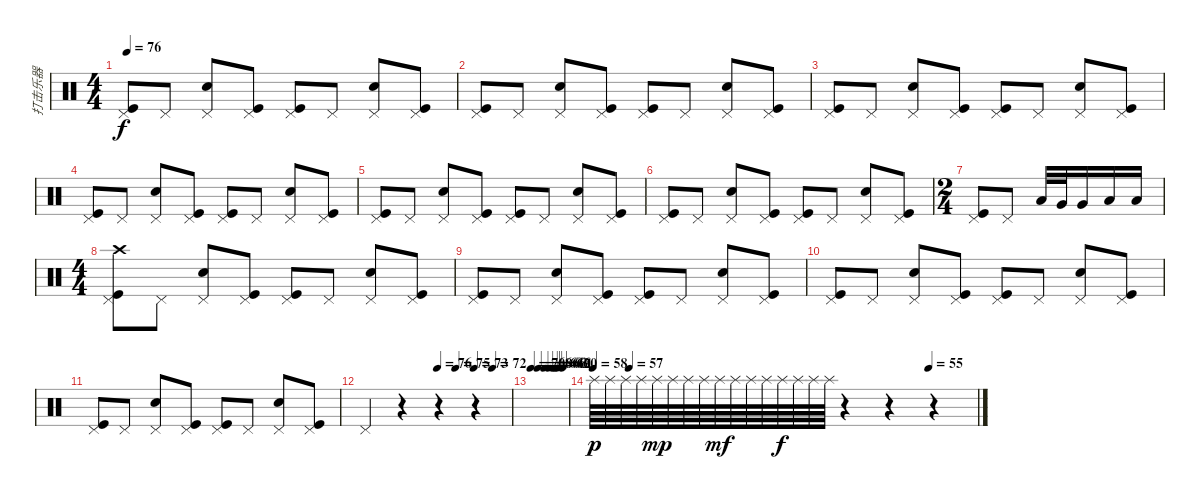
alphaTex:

\track ("打击乐器" "打击乐器") {instrument percussion}
\staff {score}
\articulation defaults
\ts (4 4)
\tempo 76
\clef neutral
\ks c
("Pedal Hi-Hat (hit)" "Kick (hit)").8{dy f} "Pedal Hi-Hat (hit)".8 ("Pedal Hi-Hat (hit)" "Snare (hit) 2").8 ("Pedal Hi-Hat (hit)" "Kick (hit)").8 ("Pedal Hi-Hat (hit)" "Kick (hit)").8 "Pedal Hi-Hat (hit)".8 ("Pedal Hi-Hat (hit)" "Snare (hit) 2").8 ("Pedal Hi-Hat (hit)" "Kick (hit)").8 |
("Pedal Hi-Hat (hit)" "Kick (hit)").8 "Pedal Hi-Hat (hit)".8 ("Pedal Hi-Hat (hit)" "Snare (hit) 2").8 ("Pedal Hi-Hat (hit)" "Kick (hit)").8 ("Pedal Hi-Hat (hit)" "Kick (hit)").8 "Pedal Hi-Hat (hit)".8 ("Pedal Hi-Hat (hit)" "Snare (hit) 2").8 ("Pedal Hi-Hat (hit)" "Kick (hit)").8 |
("Pedal Hi-Hat (hit)" "Kick (hit)").8 "Pedal Hi-Hat (hit)".8 ("Pedal Hi-Hat (hit)" "Snare (hit) 2").8 ("Pedal Hi-Hat (hit)" "Kick (hit)").8 ("Pedal Hi-Hat (hit)" "Kick (hit)").8 "Pedal Hi-Hat (hit)".8 ("Pedal Hi-Hat (hit)" "Snare (hit) 2").8 ("Pedal Hi-Hat (hit)" "Kick (hit)").8 |
("Pedal Hi-Hat (hit)" "Kick (hit)").8 "Pedal Hi-Hat (hit)".8 ("Pedal Hi-Hat (hit)" "Snare (hit) 2").8 ("Pedal Hi-Hat (hit)" "Kick (hit)").8 ("Pedal Hi-Hat (hit)" "Kick (hit)").8 "Pedal Hi-Hat (hit)".8 ("Pedal Hi-Hat (hit)" "Snare (hit) 2").8 ("Pedal Hi-Hat (hit)" "Kick (hit)").8 |
("Pedal Hi-Hat (hit)" "Kick (hit)").8 "Pedal Hi-Hat (hit)".8 ("Pedal Hi-Hat (hit)" "Snare (hit) 2").8 ("Pedal Hi-Hat (hit)" "Kick (hit)").8 ("Pedal Hi-Hat (hit)" "Kick (hit)").8 "Pedal Hi-Hat (hit)".8 ("Pedal Hi-Hat (hit)" "Snare (hit) 2").8 ("Pedal Hi-Hat (hit)" "Kick (hit)").8 |
("Pedal Hi-Hat (hit)" "Kick (hit)").8 "Pedal Hi-Hat (hit)".8 ("Pedal Hi-Hat (hit)" "Snare (hit) 2").8 ("Pedal Hi-Hat (hit)" "Kick (hit)").8 ("Pedal Hi-Hat (hit)" "Kick (hit)").8 "Pedal Hi-Hat (hit)".8 ("Pedal Hi-Hat (hit)" "Snare (hit) 2").8 ("Pedal Hi-Hat (hit)" "Kick (hit)").8 |
\ts (2 4)
("Pedal Hi-Hat (hit)" "Kick (hit)").8 "Pedal Hi-Hat (hit)".8 "Low Tom (hit)".32 "Very Low Tom (hit)".32 "Very Low Tom (hit)".16 "Low Floor Tom (hit)".16 "Low Floor Tom (hit)".16 |
\ts (4 4)
("Pedal Hi-Hat (hit)" "Crash high (hit)" "Kick (hit)").8 "Pedal Hi-Hat (hit)".8 ("Pedal Hi-Hat (hit)" "Snare (hit) 2").8 ("Pedal Hi-Hat (hit)" "Kick (hit)").8 ("Pedal Hi-Hat (hit)" "Kick (hit)").8 "Pedal Hi-Hat (hit)".8 ("Pedal Hi-Hat (hit)" "Snare (hit) 2").8 ("Pedal Hi-Hat (hit)" "Kick (hit)").8 |
("Pedal Hi-Hat (hit)" "Kick (hit)").8 "Pedal Hi-Hat (hit)".8 ("Pedal Hi-Hat (hit)" "Snare (hit) 2").8 ("Pedal Hi-Hat (hit)" "Kick (hit)").8 ("Pedal Hi-Hat (hit)" "Kick (hit)").8 "Pedal Hi-Hat (hit)".8 ("Pedal Hi-Hat (hit)" "Snare (hit) 2").8 ("Pedal Hi-Hat (hit)" "Kick (hit)").8 |
("Pedal Hi-Hat (hit)" "Kick (hit)").8 "Pedal Hi-Hat (hit)".8 ("Pedal Hi-Hat (hit)" "Snare (hit) 2").8 ("Pedal Hi-Hat (hit)" "Kick (hit)").8 ("Pedal Hi-Hat (hit)" "Kick (hit)").8 "Pedal Hi-Hat (hit)".8 ("Pedal Hi-Hat (hit)" "Snare (hit) 2").8 ("Pedal Hi-Hat (hit)" "Kick (hit)").8 |
("Pedal Hi-Hat (hit)" "Kick (hit)").8 "Pedal Hi-Hat (hit)".8 ("Pedal Hi-Hat (hit)" "Snare (hit) 2").8 ("Pedal Hi-Hat (hit)" "Kick (hit)").8 ("Pedal Hi-Hat (hit)" "Kick (hit)").8 "Pedal Hi-Hat (hit)".8 ("Pedal Hi-Hat (hit)" "Snare (hit) 2").8 ("Pedal Hi-Hat (hit)" "Kick (hit)").8 |
\tempo (76 0.5)
\tempo (75 0.625)
\tempo (73 0.75)
\tempo (72 0.875)
"Pedal Hi-Hat (hit)".4 r.4 r.4 r.4 |
\tempo 70
\tempo (68 0.1875)
\tempo (66 0.375)
\tempo (64 0.5)
\tempo (63 0.625)
\tempo (62 0.6875)
\tempo (61 0.75)
\tempo (60 0.875)
|
\tempo 58
\tempo (57 0.09375)
\tempo (55 0.875)
"Splash (hit)".64{dy p} "Splash (hit)".64 "Splash (hit)".64 "Splash (hit)".64 "Splash (hit)".64{dy mp} "Splash (hit)".64 "Splash (hit)".64 "Splash (hit)".64 "Splash (hit)".64{dy mf} "Splash (hit)".64 "Splash (hit)".64 "Splash (hit)".64 "Splash (hit)".64{dy f} "Splash (hit)".64 "Splash (hit)".64 "Splash (hit)".64 r.4 r.4 r.4
